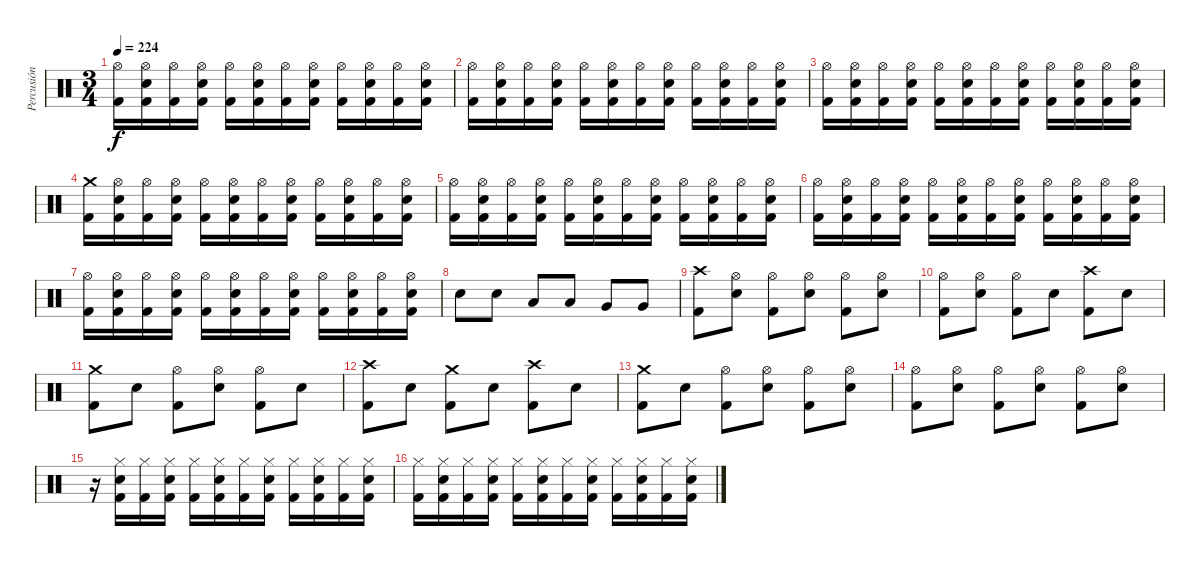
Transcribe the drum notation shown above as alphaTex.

\track ("Percusión" "Percusión") {instrument percussion}
\staff {score}
\articulation defaults
\ts (3 4)
\tempo 224
\clef neutral
\ks c
("Hi-Hat (open)" "Kick (hit) 2").16{dy f} ("Hi-Hat (open)" "Electric Snare (hit)" "Kick (hit) 2").16 ("Hi-Hat (open)" "Kick (hit) 2").16 ("Hi-Hat (open)" "Electric Snare (hit)" "Kick (hit) 2").16 ("Hi-Hat (open)" "Kick (hit) 2").16 ("Hi-Hat (open)" "Electric Snare (hit)" "Kick (hit) 2").16 ("Hi-Hat (open)" "Kick (hit) 2").16 ("Hi-Hat (open)" "Electric Snare (hit)" "Kick (hit) 2").16 ("Hi-Hat (open)" "Kick (hit) 2").16 ("Hi-Hat (open)" "Electric Snare (hit)" "Kick (hit) 2").16 ("Hi-Hat (open)" "Kick (hit) 2").16 ("Hi-Hat (open)" "Electric Snare (hit)" "Kick (hit) 2").16 |
("Hi-Hat (open)" "Kick (hit) 2").16 ("Hi-Hat (open)" "Electric Snare (hit)" "Kick (hit) 2").16 ("Hi-Hat (open)" "Kick (hit) 2").16 ("Hi-Hat (open)" "Electric Snare (hit)" "Kick (hit) 2").16 ("Hi-Hat (open)" "Kick (hit) 2").16 ("Hi-Hat (open)" "Electric Snare (hit)" "Kick (hit) 2").16 ("Hi-Hat (open)" "Kick (hit) 2").16 ("Hi-Hat (open)" "Electric Snare (hit)" "Kick (hit) 2").16 ("Hi-Hat (open)" "Kick (hit) 2").16 ("Hi-Hat (open)" "Electric Snare (hit)" "Kick (hit) 2").16 ("Hi-Hat (open)" "Kick (hit) 2").16 ("Hi-Hat (open)" "Electric Snare (hit)" "Kick (hit) 2").16 |
("Hi-Hat (open)" "Kick (hit) 2").16 ("Hi-Hat (open)" "Electric Snare (hit)" "Kick (hit) 2").16 ("Hi-Hat (open)" "Kick (hit) 2").16 ("Hi-Hat (open)" "Electric Snare (hit)" "Kick (hit) 2").16 ("Hi-Hat (open)" "Kick (hit) 2").16 ("Hi-Hat (open)" "Electric Snare (hit)" "Kick (hit) 2").16 ("Hi-Hat (open)" "Kick (hit) 2").16 ("Hi-Hat (open)" "Electric Snare (hit)" "Kick (hit) 2").16 ("Hi-Hat (open)" "Kick (hit) 2").16 ("Hi-Hat (open)" "Electric Snare (hit)" "Kick (hit) 2").16 ("Hi-Hat (open)" "Kick (hit) 2").16 ("Hi-Hat (open)" "Electric Snare (hit)" "Kick (hit) 2").16 |
("Crash medium (hit)" "Kick (hit) 2").16 ("Hi-Hat (open)" "Electric Snare (hit)" "Kick (hit) 2").16 ("Hi-Hat (open)" "Kick (hit) 2").16 ("Hi-Hat (open)" "Electric Snare (hit)" "Kick (hit) 2").16 ("Hi-Hat (open)" "Kick (hit) 2").16 ("Hi-Hat (open)" "Electric Snare (hit)" "Kick (hit) 2").16 ("Hi-Hat (open)" "Kick (hit) 2").16 ("Hi-Hat (open)" "Electric Snare (hit)" "Kick (hit) 2").16 ("Hi-Hat (open)" "Kick (hit) 2").16 ("Hi-Hat (open)" "Electric Snare (hit)" "Kick (hit) 2").16 ("Hi-Hat (open)" "Kick (hit) 2").16 ("Hi-Hat (open)" "Electric Snare (hit)" "Kick (hit) 2").16 |
("Hi-Hat (open)" "Kick (hit) 2").16 ("Hi-Hat (open)" "Electric Snare (hit)" "Kick (hit) 2").16 ("Hi-Hat (open)" "Kick (hit) 2").16 ("Hi-Hat (open)" "Electric Snare (hit)" "Kick (hit) 2").16 ("Hi-Hat (open)" "Kick (hit) 2").16 ("Hi-Hat (open)" "Electric Snare (hit)" "Kick (hit) 2").16 ("Hi-Hat (open)" "Kick (hit) 2").16 ("Hi-Hat (open)" "Electric Snare (hit)" "Kick (hit) 2").16 ("Hi-Hat (open)" "Kick (hit) 2").16 ("Hi-Hat (open)" "Electric Snare (hit)" "Kick (hit) 2").16 ("Hi-Hat (open)" "Kick (hit) 2").16 ("Hi-Hat (open)" "Electric Snare (hit)" "Kick (hit) 2").16 |
("Hi-Hat (open)" "Kick (hit) 2").16 ("Hi-Hat (open)" "Electric Snare (hit)" "Kick (hit) 2").16 ("Hi-Hat (open)" "Kick (hit) 2").16 ("Hi-Hat (open)" "Electric Snare (hit)" "Kick (hit) 2").16 ("Hi-Hat (open)" "Kick (hit) 2").16 ("Hi-Hat (open)" "Electric Snare (hit)" "Kick (hit) 2").16 ("Hi-Hat (open)" "Kick (hit) 2").16 ("Hi-Hat (open)" "Electric Snare (hit)" "Kick (hit) 2").16 ("Hi-Hat (open)" "Kick (hit) 2").16 ("Hi-Hat (open)" "Electric Snare (hit)" "Kick (hit) 2").16 ("Hi-Hat (open)" "Kick (hit) 2").16 ("Hi-Hat (open)" "Electric Snare (hit)" "Kick (hit) 2").16 |
("Hi-Hat (open)" "Kick (hit) 2").16 ("Hi-Hat (open)" "Electric Snare (hit)" "Kick (hit) 2").16 ("Hi-Hat (open)" "Kick (hit) 2").16 ("Hi-Hat (open)" "Electric Snare (hit)" "Kick (hit) 2").16 ("Hi-Hat (open)" "Kick (hit) 2").16 ("Hi-Hat (open)" "Electric Snare (hit)" "Kick (hit) 2").16 ("Hi-Hat (open)" "Kick (hit) 2").16 ("Hi-Hat (open)" "Electric Snare (hit)" "Kick (hit) 2").16 ("Hi-Hat (open)" "Kick (hit) 2").16 ("Hi-Hat (open)" "Electric Snare (hit)" "Kick (hit) 2").16 ("Hi-Hat (open)" "Kick (hit) 2").16 ("Hi-Hat (open)" "Electric Snare (hit)" "Kick (hit) 2").16 |
"Electric Snare (hit)".8 "Electric Snare (hit)".8 "Low Tom (hit)".8 "Low Tom (hit)".8 "Very Low Tom (hit)".8 "Very Low Tom (hit)".8 |
("Crash high (hit)" "Kick (hit) 2").8 ("Hi-Hat (open)" "Electric Snare (hit)").8 ("Hi-Hat (open)" "Kick (hit) 2").8 ("Hi-Hat (open)" "Electric Snare (hit)").8 ("Hi-Hat (open)" "Kick (hit) 2").8 ("Hi-Hat (open)" "Electric Snare (hit)").8 |
("Hi-Hat (open)" "Kick (hit) 2").8 ("Hi-Hat (open)" "Electric Snare (hit)").8 ("Hi-Hat (open)" "Kick (hit) 2").8 "Electric Snare (hit)".8 ("Crash high (hit)" "Kick (hit) 2").8 "Electric Snare (hit)".8 |
("Crash medium (hit)" "Kick (hit) 2").8 "Electric Snare (hit)".8 ("Hi-Hat (open)" "Kick (hit) 2").8 ("Hi-Hat (open)" "Electric Snare (hit)").8 ("Hi-Hat (open)" "Kick (hit) 2").8 "Electric Snare (hit)".8 |
("Crash high (hit)" "Kick (hit) 2").8 "Electric Snare (hit)".8 ("Crash medium (hit)" "Kick (hit) 2").8 "Electric Snare (hit)".8 ("Crash high (hit)" "Kick (hit) 2").8 "Electric Snare (hit)".8 |
("Crash medium (hit)" "Kick (hit) 2").8 "Electric Snare (hit)".8 ("Hi-Hat (open)" "Kick (hit) 2").8 ("Hi-Hat (open)" "Electric Snare (hit)").8 ("Hi-Hat (open)" "Kick (hit) 2").8 ("Hi-Hat (open)" "Electric Snare (hit)").8 |
("Hi-Hat (open)" "Kick (hit) 2").8 ("Hi-Hat (open)" "Electric Snare (hit)").8 ("Hi-Hat (open)" "Kick (hit) 2").8 ("Hi-Hat (open)" "Electric Snare (hit)").8 ("Hi-Hat (open)" "Kick (hit) 2").8 ("Hi-Hat (open)" "Electric Snare (hit)").8 |
r.16 ("Hi-Hat (closed)" "Electric Snare (hit)" "Kick (hit) 2").16 ("Hi-Hat (closed)" "Kick (hit) 2").16 ("Hi-Hat (closed)" "Electric Snare (hit)" "Kick (hit) 2").16 ("Hi-Hat (closed)" "Kick (hit) 2").16 ("Hi-Hat (closed)" "Electric Snare (hit)" "Kick (hit) 2").16 ("Hi-Hat (closed)" "Kick (hit) 2").16 ("Hi-Hat (closed)" "Electric Snare (hit)" "Kick (hit) 2").16 ("Hi-Hat (closed)" "Kick (hit) 2").16 ("Hi-Hat (closed)" "Electric Snare (hit)" "Kick (hit) 2").16 ("Hi-Hat (closed)" "Kick (hit) 2").16 ("Hi-Hat (closed)" "Electric Snare (hit)" "Kick (hit) 2").16 |
("Hi-Hat (closed)" "Kick (hit) 2").16 ("Hi-Hat (closed)" "Electric Snare (hit)" "Kick (hit) 2").16 ("Hi-Hat (closed)" "Kick (hit) 2").16 ("Hi-Hat (closed)" "Electric Snare (hit)" "Kick (hit) 2").16 ("Hi-Hat (closed)" "Kick (hit) 2").16 ("Hi-Hat (closed)" "Electric Snare (hit)" "Kick (hit) 2").16 ("Hi-Hat (closed)" "Kick (hit) 2").16 ("Hi-Hat (closed)" "Electric Snare (hit)" "Kick (hit) 2").16 ("Hi-Hat (closed)" "Kick (hit) 2").16 ("Hi-Hat (closed)" "Electric Snare (hit)" "Kick (hit) 2").16 ("Hi-Hat (closed)" "Kick (hit) 2").16 ("Hi-Hat (closed)" "Electric Snare (hit)" "Kick (hit) 2").16
